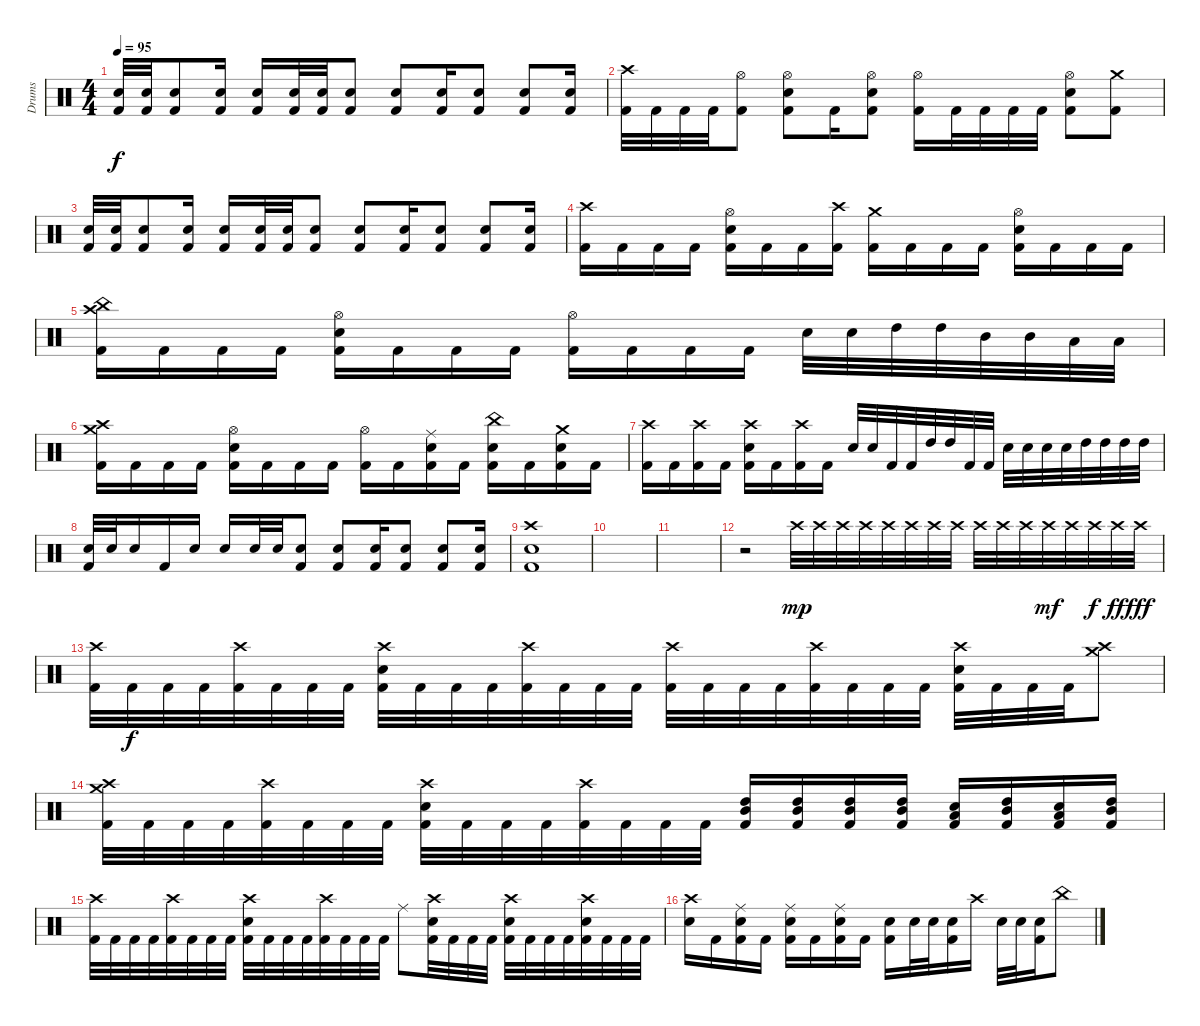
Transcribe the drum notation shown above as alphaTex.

\track ("Drums" "Drums") {instrument percussion}
\staff {score}
\articulation defaults
\ts (4 4)
\tempo 95
\clef neutral
\ks c
("Electric Snare (hit)" "Kick (hit) 2").32{dy f} ("Electric Snare (hit)" "Kick (hit) 2").32 ("Electric Snare (hit)" "Kick (hit) 2").8 ("Electric Snare (hit)" "Kick (hit) 2").16 ("Electric Snare (hit)" "Kick (hit) 2").16 ("Electric Snare (hit)" "Kick (hit) 2").32 ("Electric Snare (hit)" "Kick (hit) 2").32 ("Electric Snare (hit)" "Kick (hit) 2").8 ("Electric Snare (hit)" "Kick (hit) 2").8 ("Electric Snare (hit)" "Kick (hit) 2").16 ("Electric Snare (hit)" "Kick (hit) 2").8 ("Electric Snare (hit)" "Kick (hit) 2").8 ("Electric Snare (hit)" "Kick (hit) 2").16 |
("Crash high (hit)" "Kick (hit) 2").32 "Kick (hit) 2".32 "Kick (hit) 2".32 "Kick (hit) 2".32 ("Hi-Hat (open)" "Kick (hit) 2").8 ("Hi-Hat (open)" "Electric Snare (hit)" "Kick (hit) 2").8 "Kick (hit) 2".16 ("Hi-Hat (open)" "Electric Snare (hit)" "Kick (hit) 2").8 ("Hi-Hat (open)" "Kick (hit) 2").16 "Kick (hit) 2".32 "Kick (hit) 2".32 "Kick (hit) 2".32 "Kick (hit) 2".32 ("Hi-Hat (open)" "Electric Snare (hit)" "Kick (hit) 2").8 ("Crash medium (hit)" "Kick (hit) 2").8 |
("Electric Snare (hit)" "Kick (hit) 2").32 ("Electric Snare (hit)" "Kick (hit) 2").32 ("Electric Snare (hit)" "Kick (hit) 2").8 ("Electric Snare (hit)" "Kick (hit) 2").16 ("Electric Snare (hit)" "Kick (hit) 2").16 ("Electric Snare (hit)" "Kick (hit) 2").32 ("Electric Snare (hit)" "Kick (hit) 2").32 ("Electric Snare (hit)" "Kick (hit) 2").8 ("Electric Snare (hit)" "Kick (hit) 2").8 ("Electric Snare (hit)" "Kick (hit) 2").16 ("Electric Snare (hit)" "Kick (hit) 2").8 ("Electric Snare (hit)" "Kick (hit) 2").8 ("Electric Snare (hit)" "Kick (hit) 2").16 |
("Crash high (hit)" "Kick (hit) 2").16 "Kick (hit) 2".16 "Kick (hit) 2".16 "Kick (hit) 2".16 ("Electric Snare (hit)" "Hi-Hat (open)" "Kick (hit) 2").16 "Kick (hit) 2".16 "Kick (hit) 2".16 ("Crash high (hit)" "Kick (hit) 2").16 ("Crash medium (hit)" "Kick (hit) 2").16 "Kick (hit) 2".16 "Kick (hit) 2".16 "Kick (hit) 2".16 ("Hi-Hat (open)" "Electric Snare (hit)" "Kick (hit) 2").16 "Kick (hit) 2".16 "Kick (hit) 2".16 "Kick (hit) 2".16 |
("China (hit)" "Crash high (hit)" "Kick (hit) 2").16 "Kick (hit) 2".16 "Kick (hit) 2".16 "Kick (hit) 2".16 ("Hi-Hat (open)" "Electric Snare (hit)" "Kick (hit) 2").16 "Kick (hit) 2".16 "Kick (hit) 2".16 "Kick (hit) 2".16 ("Hi-Hat (open)" "Kick (hit) 2").16 "Kick (hit) 2".16 "Kick (hit) 2".16 "Kick (hit) 2".16 "Electric Snare (hit)".32 "Electric Snare (hit)".32 "High Tom (hit)".32 "High Tom (hit)".32 "Mid Tom (hit)".32 "Mid Tom (hit)".32 "Low Floor Tom (hit)".32 "Low Floor Tom (hit)".32 |
("Crash high (hit)" "Crash medium (hit)" "Kick (hit) 2").16 "Kick (hit) 2".16 "Kick (hit) 2".16 "Kick (hit) 2".16 ("Hi-Hat (open)" "Electric Snare (hit)" "Kick (hit) 2").16 "Kick (hit) 2".16 "Kick (hit) 2".16 "Kick (hit) 2".16 ("Hi-Hat (open)" "Kick (hit) 2").16 "Kick (hit) 2".16 ("Ride (middle)" "Electric Snare (hit)" "Kick (hit) 2").16 "Kick (hit) 2".16 ("China (hit)" "Electric Snare (hit)" "Kick (hit) 2").16 "Kick (hit) 2".16 ("Crash medium (hit)" "Electric Snare (hit)" "Kick (hit) 2").16 "Kick (hit) 2".16 |
("Crash high (hit)" "Kick (hit) 2").16 "Kick (hit) 2".16 ("Crash high (hit)" "Kick (hit) 2").16 "Kick (hit) 2".16 ("Crash high (hit)" "Electric Snare (hit)" "Kick (hit) 2").16 "Kick (hit) 2".16 ("Crash high (hit)" "Kick (hit) 2").16 "Kick (hit) 2".16 "Electric Snare (hit)".32 "Electric Snare (hit)".32 "Kick (hit) 2".32 "Kick (hit) 2".32 "High Tom (hit)".32 "High Tom (hit)".32 "Kick (hit) 2".32 "Kick (hit) 2".32 "Electric Snare (hit)".32 "Electric Snare (hit)".32 "Electric Snare (hit)".32 "Electric Snare (hit)".32 "High Tom (hit)".32 "High Tom (hit)".32 "High Tom (hit)".32 "High Tom (hit)".32 |
("Electric Snare (hit)" "Kick (hit) 2").32 "Electric Snare (hit)".32 "Electric Snare (hit)".16 "Kick (hit) 2".16 "Electric Snare (hit)".16 "Electric Snare (hit)".16 "Electric Snare (hit)".32 "Electric Snare (hit)".32 ("Electric Snare (hit)" "Kick (hit) 2").8 ("Electric Snare (hit)" "Kick (hit) 2").8 ("Electric Snare (hit)" "Kick (hit) 2").16 ("Electric Snare (hit)" "Kick (hit) 2").8 ("Electric Snare (hit)" "Kick (hit) 2").8 ("Electric Snare (hit)" "Kick (hit) 2").16 |
("Electric Snare (hit)" "Crash high (hit)" "Kick (hit) 2").1 |
|
|
r.2{volume 0} "Crash high (hit)".32{dy mp volume 11} "Crash high (hit)".32 "Crash high (hit)".32 "Crash high (hit)".32 "Crash high (hit)".32 "Crash high (hit)".32 "Crash high (hit)".32 "Crash high (hit)".32 "Crash high (hit)".32 "Crash high (hit)".32 "Crash high (hit)".32 "Crash high (hit)".32{dy mf} "Crash high (hit)".32 "Crash high (hit)".32{dy f} "Crash high (hit)".32{dy ff} "Crash high (hit)".32{dy fff} |
("Crash high (hit)" "Kick (hit) 2").32 "Kick (hit) 2".32{dy f} "Kick (hit) 2".32 "Kick (hit) 2".32 ("Crash high (hit)" "Kick (hit) 2").32 "Kick (hit) 2".32 "Kick (hit) 2".32 "Kick (hit) 2".32 ("Crash high (hit)" "Electric Snare (hit)" "Kick (hit) 2").32 "Kick (hit) 2".32 "Kick (hit) 2".32 "Kick (hit) 2".32 ("Crash high (hit)" "Kick (hit) 2").32 "Kick (hit) 2".32 "Kick (hit) 2".32 "Kick (hit) 2".32 ("Crash high (hit)" "Kick (hit) 2").32 "Kick (hit) 2".32 "Kick (hit) 2".32 "Kick (hit) 2".32 ("Crash high (hit)" "Kick (hit) 2").32 "Kick (hit) 2".32 "Kick (hit) 2".32 "Kick (hit) 2".32 ("Crash high (hit)" "Electric Snare (hit)" "Kick (hit) 2").32 "Kick (hit) 2".32 "Kick (hit) 2".32 "Kick (hit) 2".32 ("Crash medium (hit)" "Crash high (hit)").8 |
("Crash medium (hit)" "Crash high (hit)" "Kick (hit) 2").32 "Kick (hit) 2".32 "Kick (hit) 2".32 "Kick (hit) 2".32 ("Crash high (hit)" "Kick (hit) 2").32 "Kick (hit) 2".32 "Kick (hit) 2".32 "Kick (hit) 2".32 ("Crash high (hit)" "Electric Snare (hit)" "Kick (hit) 2").32 "Kick (hit) 2".32 "Kick (hit) 2".32 "Kick (hit) 2".32 ("Crash high (hit)" "Kick (hit) 2").32 "Kick (hit) 2".32 "Kick (hit) 2".32 "Kick (hit) 2".32 ("High Tom (hit)" "Mid Tom (hit)" "Kick (hit) 2").16 ("High Tom (hit)" "Mid Tom (hit)" "Kick (hit) 2").16 ("High Tom (hit)" "Mid Tom (hit)" "Kick (hit) 2").16 ("High Tom (hit)" "Mid Tom (hit)" "Kick (hit) 2").16 ("Electric Snare (hit)" "Low Floor Tom (hit)" "Kick (hit) 2").16 ("High Tom (hit)" "Mid Tom (hit)" "Kick (hit) 2").16 ("Electric Snare (hit)" "Low Floor Tom (hit)" "Kick (hit) 2").16 ("High Tom (hit)" "Mid Tom (hit)" "Kick (hit) 2").16 |
("Crash high (hit)" "Kick (hit) 2").32 "Kick (hit) 2".32 "Kick (hit) 2".32 "Kick (hit) 2".32 ("Crash high (hit)" "Kick (hit) 2").32 "Kick (hit) 2".32 "Kick (hit) 2".32 "Kick (hit) 2".32 ("Crash high (hit)" "Electric Snare (hit)" "Kick (hit) 2").32 "Kick (hit) 2".32 "Kick (hit) 2".32 "Kick (hit) 2".32 ("Crash high (hit)" "Kick (hit) 2").32 "Kick (hit) 2".32 "Kick (hit) 2".32 "Kick (hit) 2".32 "Ride (middle)".8 ("Crash high (hit)" "Electric Snare (hit)" "Kick (hit) 2").32 "Kick (hit) 2".32 "Kick (hit) 2".32 "Kick (hit) 2".32 ("Electric Snare (hit)" "Crash high (hit)" "Kick (hit) 2").32 "Kick (hit) 2".32 "Kick (hit) 2".32 "Kick (hit) 2".32 ("Electric Snare (hit)" "Crash high (hit)" "Kick (hit) 2").32 "Kick (hit) 2".32 "Kick (hit) 2".32 "Kick (hit) 2".32 |
("Crash high (hit)" "Electric Snare (hit)").16 "Kick (hit) 2".16 ("Electric Snare (hit)" "Ride (middle)" "Kick (hit) 2").16 "Kick (hit) 2".16 ("Electric Snare (hit)" "Ride (middle)" "Kick (hit) 2").16 "Kick (hit) 2".16 ("Electric Snare (hit)" "Ride (middle)" "Kick (hit) 2").16 "Kick (hit) 2".16 ("Electric Snare (hit)" "Kick (hit) 2").16 "Electric Snare (hit)".32 "Electric Snare (hit)".32 ("Electric Snare (hit)" "Kick (hit) 2").16 "Crash high (hit)".16 "Electric Snare (hit)".32 "Electric Snare (hit)".32 ("Electric Snare (hit)" "Kick (hit) 2").16 "China (hit)".8
